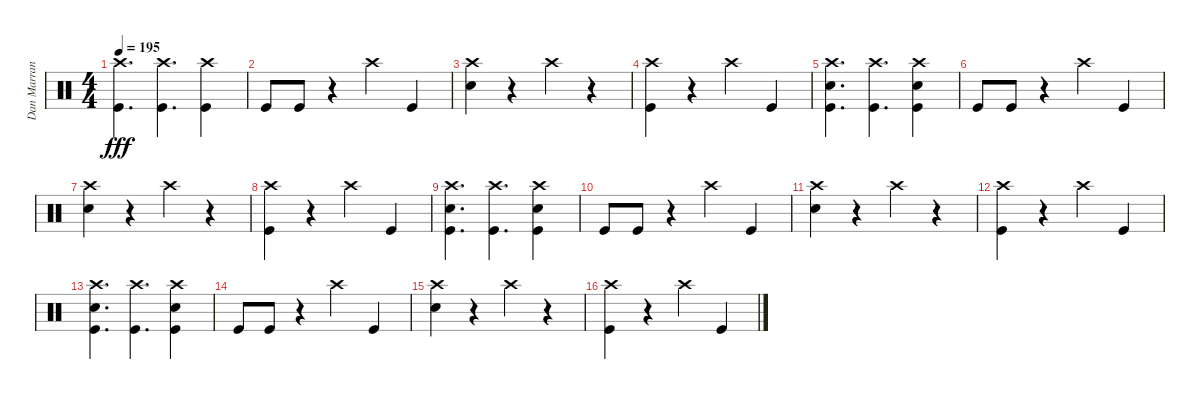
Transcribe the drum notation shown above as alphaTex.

\track ("Dan Marranca" "Dan Marran") {instrument percussion}
\staff {score}
\articulation defaults
\ts (4 4)
\tempo 195
\clef neutral
\ks c
("Crash high (hit)" "Kick (hit)").4{d dy fff} ("Crash high (hit)" "Kick (hit)").4{d} ("Crash high (hit)" "Kick (hit)").4 |
"Kick (hit)".8 "Kick (hit)".8 r.4 "Crash high (hit)".4 "Kick (hit)".4 |
("Crash high (hit)" "Electric Snare (hit)").4 r.4 "Crash high (hit)".4 r.4 |
("Crash high (hit)" "Kick (hit)").4 r.4 "Crash high (hit)".4 "Kick (hit)".4 |
("Crash high (hit)" "Electric Snare (hit)" "Kick (hit)").4{d} ("Crash high (hit)" "Kick (hit)").4{d} ("Crash high (hit)" "Electric Snare (hit)" "Kick (hit)").4 |
"Kick (hit)".8 "Kick (hit)".8 r.4 "Crash high (hit)".4 "Kick (hit)".4 |
("Crash high (hit)" "Electric Snare (hit)").4 r.4 "Crash high (hit)".4 r.4 |
("Crash high (hit)" "Kick (hit)").4 r.4 "Crash high (hit)".4 "Kick (hit)".4 |
("Crash high (hit)" "Electric Snare (hit)" "Kick (hit)").4{d} ("Crash high (hit)" "Kick (hit)").4{d} ("Crash high (hit)" "Electric Snare (hit)" "Kick (hit)").4 |
"Kick (hit)".8 "Kick (hit)".8 r.4 "Crash high (hit)".4 "Kick (hit)".4 |
("Crash high (hit)" "Electric Snare (hit)").4 r.4 "Crash high (hit)".4 r.4 |
("Crash high (hit)" "Kick (hit)").4 r.4 "Crash high (hit)".4 "Kick (hit)".4 |
("Crash high (hit)" "Electric Snare (hit)" "Kick (hit)").4{d} ("Crash high (hit)" "Kick (hit)").4{d} ("Crash high (hit)" "Electric Snare (hit)" "Kick (hit)").4 |
"Kick (hit)".8 "Kick (hit)".8 r.4 "Crash high (hit)".4 "Kick (hit)".4 |
("Crash high (hit)" "Electric Snare (hit)").4 r.4 "Crash high (hit)".4 r.4 |
("Crash high (hit)" "Kick (hit)").4 r.4 "Crash high (hit)".4 "Kick (hit)".4
